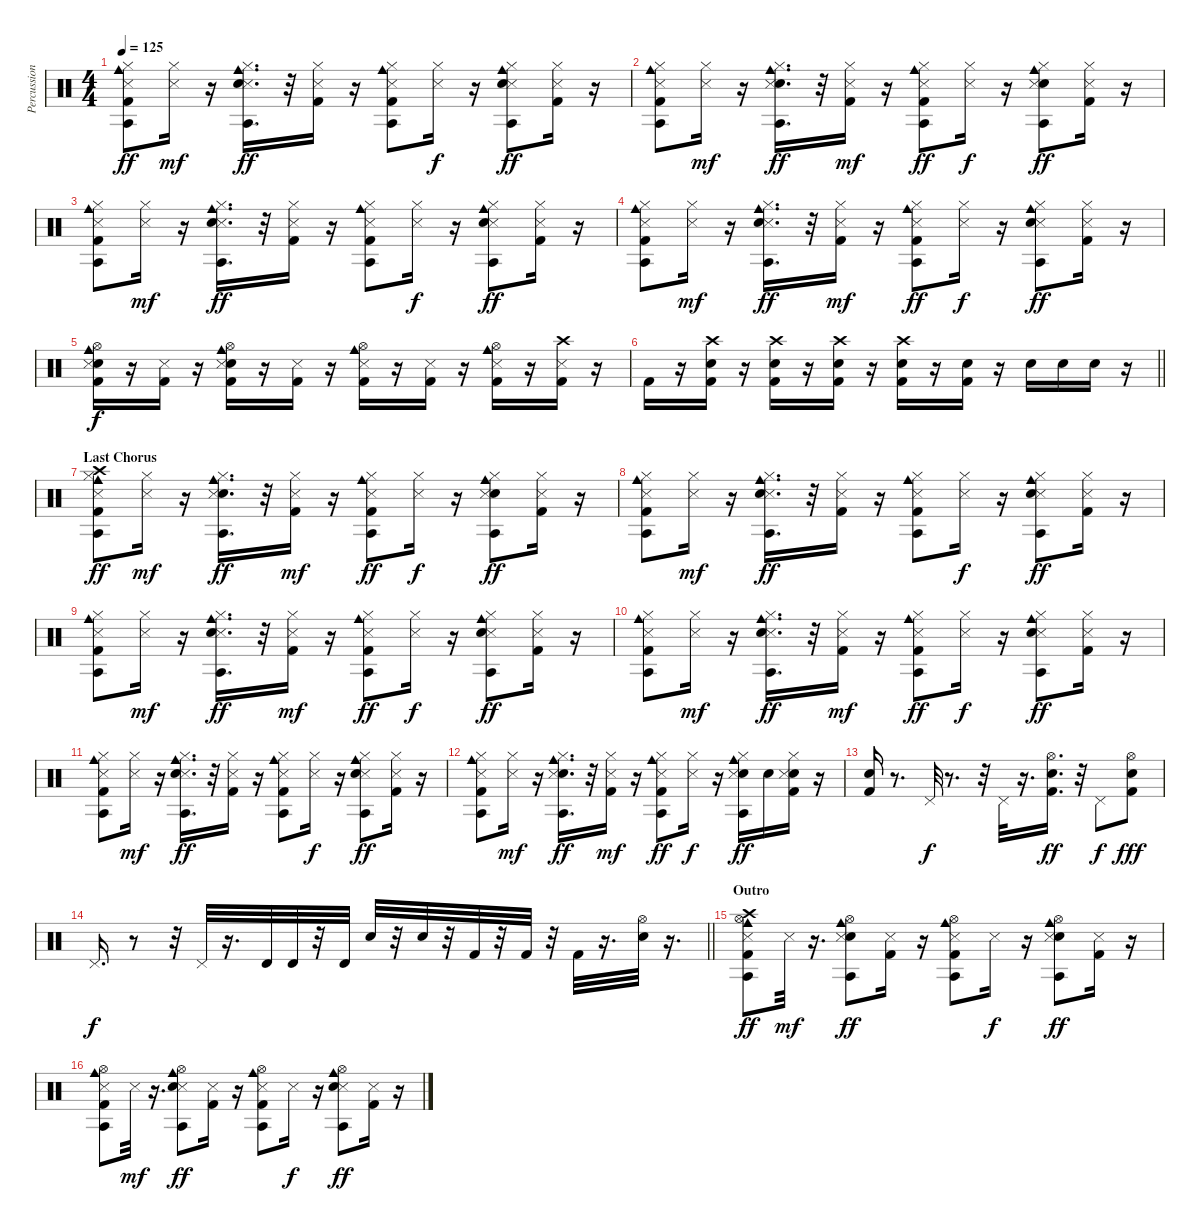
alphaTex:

\track ("Percussion" "Percussion") {instrument percussion}
\staff {score}
\articulation defaults
\ts (4 4)
\tempo 125
\clef neutral
\ks c
("Hi-Hat (closed)" "Cowbell medium (hit)" "Snare (side stick) 3" "Agogo tow (hit)" "Kick (hit) 2").8{dy ff} ("Hi-Hat (closed)" "Snare (side stick) 3").16{dy mf} r.16 ("Hi-Hat (closed)" "Cowbell medium (hit)" "Snare (side stick) 3" "Agogo tow (hit)" "Snare (hit) 2").16{d dy ff} r.32 ("Hi-Hat (closed)" "Snare (side stick) 3" "Kick (hit) 2").16 r.16 ("Hi-Hat (closed)" "Cowbell medium (hit)" "Snare (side stick) 3" "Agogo tow (hit)" "Kick (hit) 2").8 ("Hi-Hat (closed)" "Snare (side stick) 3").16{dy f} r.16 ("Hi-Hat (closed)" "Cowbell medium (hit)" "Snare (side stick) 3" "Agogo tow (hit)" "Snare (hit) 2").8{dy ff} ("Hi-Hat (closed)" "Snare (side stick) 3" "Kick (hit) 2").16 r.16 |
("Kick (hit) 2" "Agogo tow (hit)" "Cowbell medium (hit)" "Snare (side stick) 3" "Hi-Hat (closed)").8 ("Snare (side stick) 3" "Hi-Hat (closed)").16{dy mf} r.16 ("Snare (hit) 2" "Agogo tow (hit)" "Cowbell medium (hit)" "Snare (side stick) 3" "Hi-Hat (closed)").16{d dy ff} r.32 ("Kick (hit) 2" "Snare (side stick) 3" "Hi-Hat (closed)").16{dy mf} r.16 ("Kick (hit) 2" "Agogo tow (hit)" "Cowbell medium (hit)" "Snare (side stick) 3" "Hi-Hat (closed)").8{dy ff} ("Snare (side stick) 3" "Hi-Hat (closed)").16{dy f} r.16 ("Snare (hit) 2" "Agogo tow (hit)" "Cowbell medium (hit)" "Snare (side stick) 3" "Hi-Hat (closed)").8{dy ff} ("Kick (hit) 2" "Snare (side stick) 3" "Hi-Hat (closed)").16 r.16 |
("Agogo tow (hit)" "Snare (side stick) 3" "Cowbell medium (hit)" "Hi-Hat (closed)" "Kick (hit) 2").8 ("Snare (side stick) 3" "Hi-Hat (closed)").16{dy mf} r.16 ("Agogo tow (hit)" "Snare (side stick) 3" "Cowbell medium (hit)" "Hi-Hat (closed)" "Snare (hit) 2").16{d dy ff} r.32 ("Snare (side stick) 3" "Hi-Hat (closed)" "Kick (hit) 2").16 r.16 ("Agogo tow (hit)" "Snare (side stick) 3" "Cowbell medium (hit)" "Hi-Hat (closed)" "Kick (hit) 2").8 ("Snare (side stick) 3" "Hi-Hat (closed)").16{dy f} r.16 ("Agogo tow (hit)" "Snare (side stick) 3" "Cowbell medium (hit)" "Hi-Hat (closed)" "Snare (hit) 2").8{dy ff} ("Snare (side stick) 3" "Hi-Hat (closed)" "Kick (hit) 2").16 r.16 |
("Cowbell medium (hit)" "Snare (side stick) 3" "Agogo tow (hit)" "Kick (hit) 2" "Hi-Hat (closed)").8 ("Snare (side stick) 3" "Hi-Hat (closed)").16{dy mf} r.16 ("Cowbell medium (hit)" "Snare (side stick) 3" "Agogo tow (hit)" "Snare (hit) 2" "Hi-Hat (closed)").16{d dy ff} r.32 ("Snare (side stick) 3" "Kick (hit) 2" "Hi-Hat (closed)").16{dy mf} r.16 ("Cowbell medium (hit)" "Snare (side stick) 3" "Agogo tow (hit)" "Kick (hit) 2" "Hi-Hat (closed)").8{dy ff} ("Snare (side stick) 3" "Hi-Hat (closed)").16{dy f} r.16 ("Cowbell medium (hit)" "Snare (side stick) 3" "Agogo tow (hit)" "Snare (hit) 2" "Hi-Hat (closed)").8{dy ff} ("Snare (side stick) 3" "Kick (hit) 2" "Hi-Hat (closed)").16 r.16 |
("Electric Snare (hit)" "Snare (side stick) 3" "Cowbell medium (hit)" "Hi-Hat (open)" "Kick (hit) 2").16{dy f} r.16 ("Snare (side stick) 3" "Kick (hit) 2").16 r.16 ("Electric Snare (hit)" "Snare (side stick) 3" "Cowbell medium (hit)" "Hi-Hat (open)" "Kick (hit) 2").16 r.16 ("Snare (side stick) 3" "Kick (hit) 2").16 r.16 ("Snare (side stick) 3" "Cowbell medium (hit)" "Hi-Hat (open)" "Kick (hit) 2").16 r.16 ("Snare (side stick) 3" "Kick (hit) 2").16 r.16 ("Snare (side stick) 3" "Cowbell medium (hit)" "Hi-Hat (open)" "Kick (hit) 2").16 r.16 ("Crash high (hit)" "Snare (side stick) 3" "Kick (hit) 2").16 r.16 |
\barLineRight lightlight "Kick (hit) 2".16
r.16 ("Crash high (hit)" "Snare (hit) 2" "Kick (hit) 2").16 r.16 ("Snare (hit) 2" "Crash high (hit)" "Kick (hit) 2").16 r.16 ("Snare (hit) 2" "Kick (hit) 2" "Crash high (hit)").16 r.16 ("Snare (hit) 2" "Crash high (hit)" "Kick (hit) 2").16 r.16 ("Snare (hit) 2" "Kick (hit) 2").16 r.16 "Snare (hit) 2".16 "Snare (hit) 2".16 "Snare (hit) 2".16 r.16 |
\section ("" "Last Chorus")
("Kick (hit) 2" "Hi-Hat (closed)" "Agogo tow (hit)" "Crash high (hit)" "Cowbell medium (hit)" "Snare (side stick) 3").8{dy ff} ("Hi-Hat (closed)" "Snare (side stick) 3").16{dy mf} r.16 ("Snare (hit) 2" "Hi-Hat (closed)" "Agogo tow (hit)" "Cowbell medium (hit)" "Snare (side stick) 3").16{d dy ff} r.32 ("Kick (hit) 2" "Hi-Hat (closed)" "Snare (side stick) 3").16{dy mf} r.16 ("Kick (hit) 2" "Hi-Hat (closed)" "Agogo tow (hit)" "Cowbell medium (hit)" "Snare (side stick) 3").8{dy ff} ("Hi-Hat (closed)" "Snare (side stick) 3").16{dy f} r.16 ("Snare (hit) 2" "Hi-Hat (closed)" "Agogo tow (hit)" "Cowbell medium (hit)" "Snare (side stick) 3").8{dy ff} ("Kick (hit) 2" "Hi-Hat (closed)" "Snare (side stick) 3").16 r.16 |
("Cowbell medium (hit)" "Snare (side stick) 3" "Hi-Hat (closed)" "Agogo tow (hit)" "Kick (hit) 2").8 ("Snare (side stick) 3" "Hi-Hat (closed)").16{dy mf} r.16 ("Cowbell medium (hit)" "Snare (side stick) 3" "Hi-Hat (closed)" "Agogo tow (hit)" "Snare (hit) 2").16{d dy ff} r.32 ("Snare (side stick) 3" "Hi-Hat (closed)" "Kick (hit) 2").16 r.16 ("Cowbell medium (hit)" "Snare (side stick) 3" "Hi-Hat (closed)" "Agogo tow (hit)" "Kick (hit) 2").8 ("Snare (side stick) 3" "Hi-Hat (closed)").16{dy f} r.16 ("Cowbell medium (hit)" "Snare (side stick) 3" "Hi-Hat (closed)" "Agogo tow (hit)" "Snare (hit) 2").8{dy ff} ("Snare (side stick) 3" "Hi-Hat (closed)" "Kick (hit) 2").16 r.16 |
("Snare (side stick) 3" "Agogo tow (hit)" "Kick (hit) 2" "Cowbell medium (hit)" "Hi-Hat (closed)").8 ("Snare (side stick) 3" "Hi-Hat (closed)").16{dy mf} r.16 ("Snare (side stick) 3" "Agogo tow (hit)" "Snare (hit) 2" "Cowbell medium (hit)" "Hi-Hat (closed)").16{d dy ff} r.32 ("Snare (side stick) 3" "Kick (hit) 2" "Hi-Hat (closed)").16{dy mf} r.16 ("Snare (side stick) 3" "Agogo tow (hit)" "Kick (hit) 2" "Cowbell medium (hit)" "Hi-Hat (closed)").8{dy ff} ("Snare (side stick) 3" "Hi-Hat (closed)").16{dy f} r.16 ("Snare (side stick) 3" "Agogo tow (hit)" "Snare (hit) 2" "Cowbell medium (hit)" "Hi-Hat (closed)").8{dy ff} ("Snare (side stick) 3" "Kick (hit) 2" "Hi-Hat (closed)").16 r.16 |
("Cowbell medium (hit)" "Agogo tow (hit)" "Snare (side stick) 3" "Kick (hit) 2" "Hi-Hat (closed)").8 ("Snare (side stick) 3" "Hi-Hat (closed)").16{dy mf} r.16 ("Cowbell medium (hit)" "Agogo tow (hit)" "Snare (side stick) 3" "Snare (hit) 2" "Hi-Hat (closed)").16{d dy ff} r.32 ("Snare (side stick) 3" "Kick (hit) 2" "Hi-Hat (closed)").16{dy mf} r.16 ("Cowbell medium (hit)" "Agogo tow (hit)" "Snare (side stick) 3" "Kick (hit) 2" "Hi-Hat (closed)").8{dy ff} ("Snare (side stick) 3" "Hi-Hat (closed)").16{dy f} r.16 ("Cowbell medium (hit)" "Agogo tow (hit)" "Snare (side stick) 3" "Snare (hit) 2" "Hi-Hat (closed)").8{dy ff} ("Snare (side stick) 3" "Kick (hit) 2" "Hi-Hat (closed)").16 r.16 |
("Hi-Hat (closed)" "Cowbell medium (hit)" "Snare (side stick) 3" "Agogo tow (hit)" "Kick (hit) 2").8 ("Hi-Hat (closed)" "Snare (side stick) 3").16{dy mf} r.16 ("Hi-Hat (closed)" "Cowbell medium (hit)" "Snare (side stick) 3" "Agogo tow (hit)" "Snare (hit) 2").16{d dy ff} r.32 ("Hi-Hat (closed)" "Snare (side stick) 3" "Kick (hit) 2").16 r.16 ("Hi-Hat (closed)" "Cowbell medium (hit)" "Snare (side stick) 3" "Agogo tow (hit)" "Kick (hit) 2").8 ("Hi-Hat (closed)" "Snare (side stick) 3").16{dy f} r.16 ("Hi-Hat (closed)" "Cowbell medium (hit)" "Snare (side stick) 3" "Agogo tow (hit)" "Snare (hit) 2").8{dy ff} ("Hi-Hat (closed)" "Snare (side stick) 3" "Kick (hit) 2").16 r.16 |
("Kick (hit) 2" "Agogo tow (hit)" "Cowbell medium (hit)" "Snare (side stick) 3" "Hi-Hat (closed)").8 ("Snare (side stick) 3" "Hi-Hat (closed)").16{dy mf} r.16 ("Snare (hit) 2" "Agogo tow (hit)" "Cowbell medium (hit)" "Snare (side stick) 3" "Hi-Hat (closed)").16{d dy ff} r.32 ("Kick (hit) 2" "Snare (side stick) 3" "Hi-Hat (closed)").16{dy mf} r.16 ("Kick (hit) 2" "Agogo tow (hit)" "Cowbell medium (hit)" "Snare (side stick) 3" "Hi-Hat (closed)").8{dy ff} ("Snare (side stick) 3" "Hi-Hat (closed)").16{dy f} r.16 ("Snare (hit) 2" "Agogo tow (hit)" "Cowbell medium (hit)" "Snare (side stick) 3" "Hi-Hat (closed)").16{dy ff} "Snare (hit) 2".16 ("Snare (hit) 2" "Kick (hit) 2" "Snare (side stick) 3" "Hi-Hat (closed)").16 r.16 |
("Kick (hit) 2" "Snare (hit) 2").16 r.8{d} "Pedal Hi-Hat (hit)".32{dy f} r.8{d} r.32 "Pedal Hi-Hat (hit)".32 r.16{d} ("Snare (hit) 2" "Kick (hit) 2" "Hi-Hat (open)").16{d dy ff} r.32 "Pedal Hi-Hat (hit)".8{dy f} ("Kick (hit) 2" "Snare (hit) 2" "Hi-Hat (open)").8{dy fff} |
\barLineRight lightlight "Pedal Hi-Hat (hit)".16{d dy f}
r.8 r.32 "Pedal Hi-Hat (hit)".32 r.16{d} "Timbale high (hit)".32 "Timbale high (hit)".32 r.32 "Timbale high (hit)".32 "Snare (hit) 2".32 r.32 "Electric Snare (hit)".32 r.32 "Kick (hit) 2".32 r.32 "Kick (hit) 2".32 r.32 "Kick (hit) 2".32 r.16{d} ("Hi-Hat (open)" "Snare (hit) 2").32 r.16{d} |
\section ("" "Outro")
("Hi-Hat (open)" "Kick (hit) 2" "Agogo tow (hit)" "Crash high (hit)" "Cowbell medium (hit)" "Snare (side stick) 3").8{dy ff} "Snare (side stick) 3".32{dy mf} r.16{d} ("Hi-Hat (open)" "Snare (hit) 2" "Agogo tow (hit)" "Cowbell medium (hit)" "Snare (side stick) 3").8{dy ff} ("Kick (hit) 2" "Snare (side stick) 3").16 r.16 ("Hi-Hat (open)" "Kick (hit) 2" "Agogo tow (hit)" "Cowbell medium (hit)" "Snare (side stick) 3").8 "Snare (side stick) 3".16{dy f} r.16 ("Hi-Hat (open)" "Snare (hit) 2" "Agogo tow (hit)" "Cowbell medium (hit)" "Snare (side stick) 3").8{dy ff} ("Kick (hit) 2" "Snare (side stick) 3").16 r.16 |
("Hi-Hat (open)" "Cowbell medium (hit)" "Snare (side stick) 3" "Agogo tow (hit)" "Kick (hit) 2").8 "Snare (side stick) 3".32{dy mf} r.16{d} ("Hi-Hat (open)" "Cowbell medium (hit)" "Snare (side stick) 3" "Agogo tow (hit)" "Snare (hit) 2").8{dy ff} ("Snare (side stick) 3" "Kick (hit) 2").16 r.16 ("Hi-Hat (open)" "Cowbell medium (hit)" "Snare (side stick) 3" "Agogo tow (hit)" "Kick (hit) 2").8 "Snare (side stick) 3".16{dy f} r.16 ("Hi-Hat (open)" "Cowbell medium (hit)" "Snare (side stick) 3" "Agogo tow (hit)" "Snare (hit) 2").8{dy ff} ("Snare (side stick) 3" "Kick (hit) 2").16 r.16
